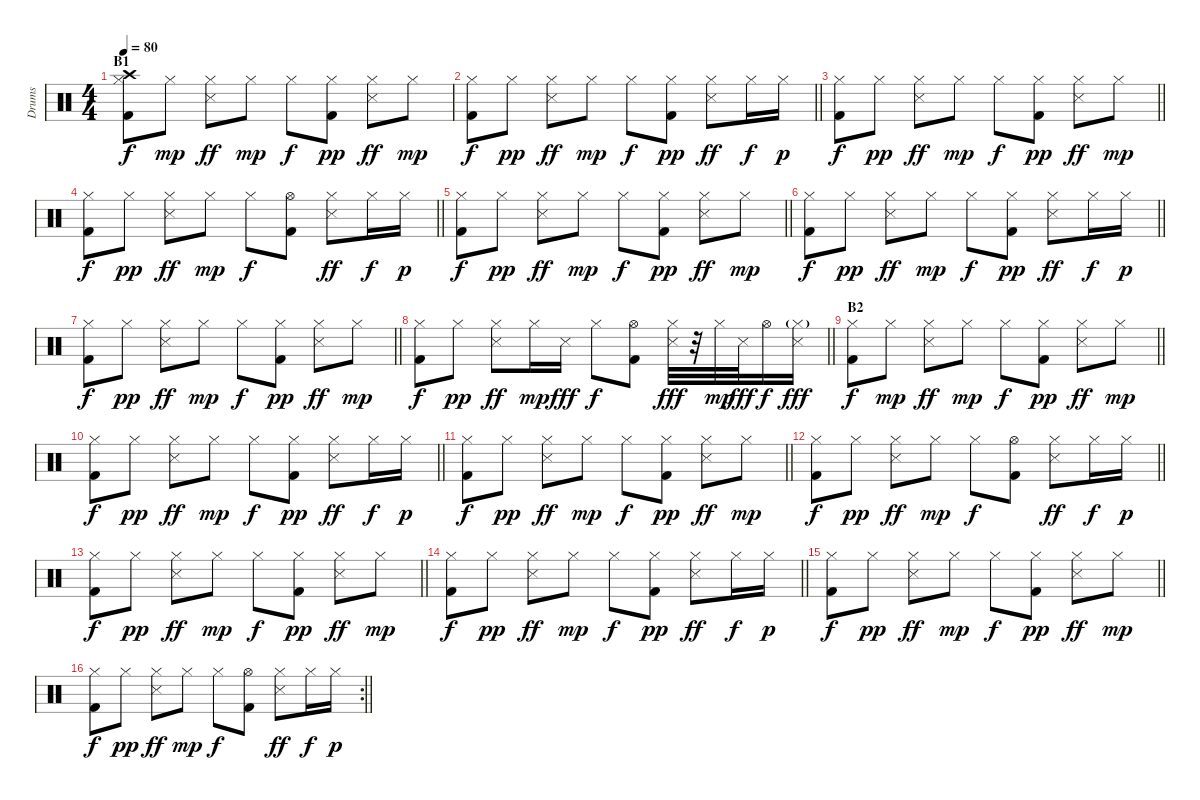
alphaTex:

\track ("Drums" "Drums") {instrument percussion}
\staff {score}
\articulation defaults
\ts (4 4)
\section ("" "B1")
\tempo 80
\clef neutral
\ks c
("Hi-Hat (closed)" "Kick (hit) 2" "Crash high (hit)").8{dy f} "Hi-Hat (closed)".8{dy mp} ("Hi-Hat (closed)" "Snare (side stick) 3").8{dy ff} "Hi-Hat (closed)".8{dy mp} "Hi-Hat (closed)".8{dy f} ("Hi-Hat (closed)" "Kick (hit) 2").8{dy pp} ("Hi-Hat (closed)" "Snare (side stick) 3").8{dy ff} "Hi-Hat (closed)".8{dy mp} |
\barLineRight lightlight
("Hi-Hat (closed)" "Kick (hit) 2").8{dy f} "Hi-Hat (closed)".8{dy pp} ("Hi-Hat (closed)" "Snare (side stick) 3").8{dy ff} "Hi-Hat (closed)".8{dy mp} "Hi-Hat (closed)".8{dy f} ("Hi-Hat (closed)" "Kick (hit) 2").8{dy pp} ("Hi-Hat (closed)" "Snare (side stick) 3").8{dy ff} "Hi-Hat (closed)".16{dy f} "Hi-Hat (closed)".16{dy p} |
\barLineRight lightlight
("Hi-Hat (closed)" "Kick (hit) 2").8{dy f} "Hi-Hat (closed)".8{dy pp} ("Hi-Hat (closed)" "Snare (side stick) 3").8{dy ff} "Hi-Hat (closed)".8{dy mp} "Hi-Hat (closed)".8{dy f} ("Hi-Hat (closed)" "Kick (hit) 2").8{dy pp} ("Hi-Hat (closed)" "Snare (side stick) 3").8{dy ff} "Hi-Hat (closed)".8{dy mp} |
\barLineRight lightlight
("Hi-Hat (closed)" "Kick (hit) 2").8{dy f} "Hi-Hat (closed)".8{dy pp} ("Hi-Hat (closed)" "Snare (side stick) 3").8{dy ff} "Hi-Hat (closed)".8{dy mp} "Hi-Hat (closed)".8{dy f} ("Hi-Hat (open)" "Kick (hit) 2").8 ("Hi-Hat (closed)" "Snare (side stick) 3").8{dy ff} "Hi-Hat (closed)".16{dy f} "Hi-Hat (closed)".16{dy p} |
\barLineRight lightlight
("Hi-Hat (closed)" "Kick (hit) 2").8{dy f} "Hi-Hat (closed)".8{dy pp} ("Hi-Hat (closed)" "Snare (side stick) 3").8{dy ff} "Hi-Hat (closed)".8{dy mp} "Hi-Hat (closed)".8{dy f} ("Hi-Hat (closed)" "Kick (hit) 2").8{dy pp} ("Hi-Hat (closed)" "Snare (side stick) 3").8{dy ff} "Hi-Hat (closed)".8{dy mp} |
\barLineRight lightlight
("Hi-Hat (closed)" "Kick (hit) 2").8{dy f} "Hi-Hat (closed)".8{dy pp} ("Hi-Hat (closed)" "Snare (side stick) 3").8{dy ff} "Hi-Hat (closed)".8{dy mp} "Hi-Hat (closed)".8{dy f} ("Hi-Hat (closed)" "Kick (hit) 2").8{dy pp} ("Hi-Hat (closed)" "Snare (side stick) 3").8{dy ff} "Hi-Hat (closed)".16{dy f} "Hi-Hat (closed)".16{dy p} |
\barLineRight lightlight
("Hi-Hat (closed)" "Kick (hit) 2").8{dy f} "Hi-Hat (closed)".8{dy pp} ("Hi-Hat (closed)" "Snare (side stick) 3").8{dy ff} "Hi-Hat (closed)".8{dy mp} "Hi-Hat (closed)".8{dy f} ("Hi-Hat (closed)" "Kick (hit) 2").8{dy pp} ("Hi-Hat (closed)" "Snare (side stick) 3").8{dy ff} "Hi-Hat (closed)".8{dy mp} |
\barLineRight lightlight
("Hi-Hat (closed)" "Kick (hit) 2").8{dy f} "Hi-Hat (closed)".8{dy pp} ("Hi-Hat (closed)" "Snare (side stick) 3").8{dy ff} "Hi-Hat (closed)".16{dy mp} "Snare (side stick) 3".16{dy fff} "Hi-Hat (closed)".8{dy f} ("Hi-Hat (open)" "Kick (hit) 2").8 ("Hi-Hat (closed)" "Snare (side stick) 3").32{dy fff} r.32 "Hi-Hat (closed)".32{dy mp} "Snare (side stick) 3".32{dy fff} "Hi-Hat (open)".16{dy f} ("Hi-Hat (closed)"{g} "Snare (side stick) 3").16{dy fff} |
\section ("" "B2")
\barLineRight lightlight
("Hi-Hat (closed)" "Kick (hit) 2").8{dy f} "Hi-Hat (closed)".8{dy mp} ("Hi-Hat (closed)" "Snare (side stick) 3").8{dy ff} "Hi-Hat (closed)".8{dy mp} "Hi-Hat (closed)".8{dy f} ("Hi-Hat (closed)" "Kick (hit) 2").8{dy pp} ("Hi-Hat (closed)" "Snare (side stick) 3").8{dy ff} "Hi-Hat (closed)".8{dy mp} |
\barLineRight lightlight
("Hi-Hat (closed)" "Kick (hit) 2").8{dy f} "Hi-Hat (closed)".8{dy pp} ("Hi-Hat (closed)" "Snare (side stick) 3").8{dy ff} "Hi-Hat (closed)".8{dy mp} "Hi-Hat (closed)".8{dy f} ("Hi-Hat (closed)" "Kick (hit) 2").8{dy pp} ("Hi-Hat (closed)" "Snare (side stick) 3").8{dy ff} "Hi-Hat (closed)".16{dy f} "Hi-Hat (closed)".16{dy p} |
\barLineRight lightlight
("Hi-Hat (closed)" "Kick (hit) 2").8{dy f} "Hi-Hat (closed)".8{dy pp} ("Hi-Hat (closed)" "Snare (side stick) 3").8{dy ff} "Hi-Hat (closed)".8{dy mp} "Hi-Hat (closed)".8{dy f} ("Hi-Hat (closed)" "Kick (hit) 2").8{dy pp} ("Hi-Hat (closed)" "Snare (side stick) 3").8{dy ff} "Hi-Hat (closed)".8{dy mp} |
\barLineRight lightlight
("Hi-Hat (closed)" "Kick (hit) 2").8{dy f} "Hi-Hat (closed)".8{dy pp} ("Hi-Hat (closed)" "Snare (side stick) 3").8{dy ff} "Hi-Hat (closed)".8{dy mp} "Hi-Hat (closed)".8{dy f} ("Hi-Hat (open)" "Kick (hit) 2").8 ("Hi-Hat (closed)" "Snare (side stick) 3").8{dy ff} "Hi-Hat (closed)".16{dy f} "Hi-Hat (closed)".16{dy p} |
\barLineRight lightlight
("Hi-Hat (closed)" "Kick (hit) 2").8{dy f} "Hi-Hat (closed)".8{dy pp} ("Hi-Hat (closed)" "Snare (side stick) 3").8{dy ff} "Hi-Hat (closed)".8{dy mp} "Hi-Hat (closed)".8{dy f} ("Hi-Hat (closed)" "Kick (hit) 2").8{dy pp} ("Hi-Hat (closed)" "Snare (side stick) 3").8{dy ff} "Hi-Hat (closed)".8{dy mp} |
\barLineRight lightlight
("Hi-Hat (closed)" "Kick (hit) 2").8{dy f} "Hi-Hat (closed)".8{dy pp} ("Hi-Hat (closed)" "Snare (side stick) 3").8{dy ff} "Hi-Hat (closed)".8{dy mp} "Hi-Hat (closed)".8{dy f} ("Hi-Hat (closed)" "Kick (hit) 2").8{dy pp} ("Hi-Hat (closed)" "Snare (side stick) 3").8{dy ff} "Hi-Hat (closed)".16{dy f} "Hi-Hat (closed)".16{dy p} |
\barLineRight lightlight
("Hi-Hat (closed)" "Kick (hit) 2").8{dy f} "Hi-Hat (closed)".8{dy pp} ("Hi-Hat (closed)" "Snare (side stick) 3").8{dy ff} "Hi-Hat (closed)".8{dy mp} "Hi-Hat (closed)".8{dy f} ("Hi-Hat (closed)" "Kick (hit) 2").8{dy pp} ("Hi-Hat (closed)" "Snare (side stick) 3").8{dy ff} "Hi-Hat (closed)".8{dy mp} |
\rc 2
\barLineRight lightlight
("Hi-Hat (closed)" "Kick (hit) 2").8{dy f} "Hi-Hat (closed)".8{dy pp} ("Hi-Hat (closed)" "Snare (side stick) 3").8{dy ff} "Hi-Hat (closed)".8{dy mp} "Hi-Hat (closed)".8{dy f} ("Hi-Hat (open)" "Kick (hit) 2").8 ("Hi-Hat (closed)" "Snare (side stick) 3").8{dy ff} "Hi-Hat (closed)".16{dy f} "Hi-Hat (closed)".16{dy p}
